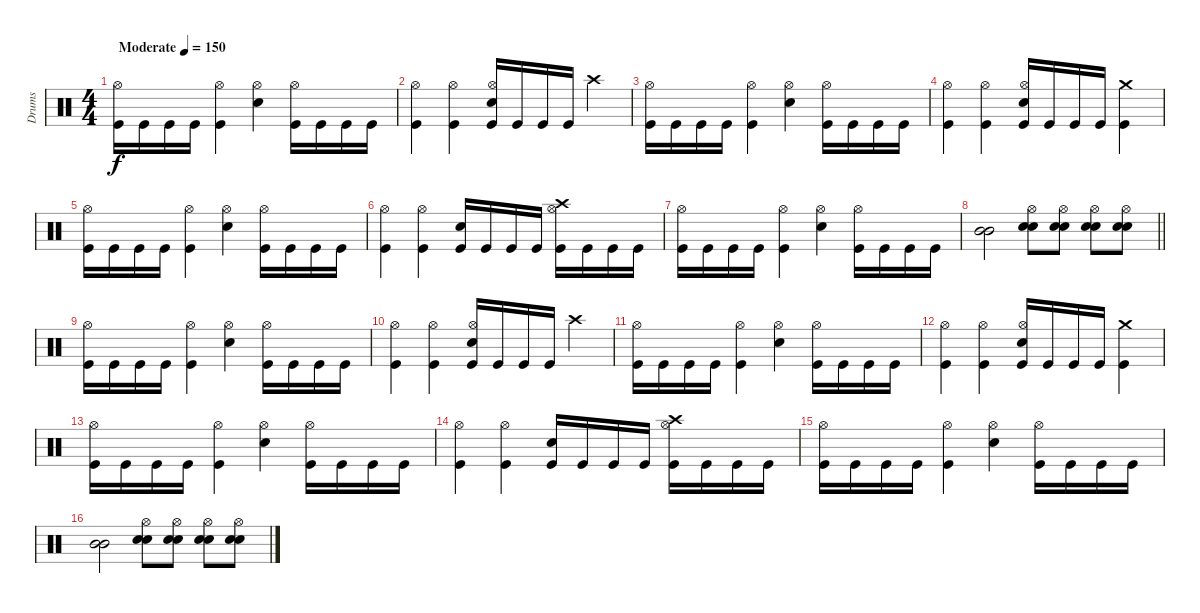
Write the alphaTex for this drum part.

\track ("Drums" "Drums") {instrument percussion}
\staff {score}
\articulation defaults
\ts (4 4)
\tempo (150 "Moderate")
\clef neutral
\ks c
("Kick (hit)" "Hi-Hat (open)").16{dy f} "Kick (hit)".16 "Kick (hit)".16 "Kick (hit)".16 ("Kick (hit)" "Hi-Hat (open)").4 ("Snare (hit) 2" "Hi-Hat (open)").4 ("Hi-Hat (open)" "Kick (hit)").16 "Kick (hit)".16 "Kick (hit)".16 "Kick (hit)".16 |
("Kick (hit)" "Hi-Hat (open)").4 ("Kick (hit)" "Hi-Hat (open)").4 ("Snare (hit) 2" "Kick (hit)" "Hi-Hat (open)").16 "Kick (hit)".16 "Kick (hit)".16 "Kick (hit)".16 "Crash high (hit)".4 |
("Kick (hit)" "Hi-Hat (open)").16 "Kick (hit)".16 "Kick (hit)".16 "Kick (hit)".16 ("Kick (hit)" "Hi-Hat (open)").4 ("Snare (hit) 2" "Hi-Hat (open)").4 ("Kick (hit)" "Hi-Hat (open)").16 "Kick (hit)".16 "Kick (hit)".16 "Kick (hit)".16 |
("Kick (hit)" "Hi-Hat (open)").4 ("Kick (hit)" "Hi-Hat (open)").4 ("Snare (hit) 2" "Kick (hit)" "Hi-Hat (open)").16 "Kick (hit)".16 "Kick (hit)".16 "Kick (hit)".16 ("Kick (hit)" "Crash medium (hit)").4 |
("Kick (hit)" "Hi-Hat (open)").16 "Kick (hit)".16 "Kick (hit)".16 "Kick (hit)".16 ("Kick (hit)" "Hi-Hat (open)").4 ("Snare (hit) 2" "Hi-Hat (open)").4 ("Kick (hit)" "Hi-Hat (open)").16 "Kick (hit)".16 "Kick (hit)".16 "Kick (hit)".16 |
("Kick (hit)" "Hi-Hat (open)").4 ("Kick (hit)" "Hi-Hat (open)").4 ("Snare (hit) 2" "Kick (hit)").16 "Kick (hit)".16 "Kick (hit)".16 "Kick (hit)".16 ("Crash high (hit)" "Kick (hit)" "Hi-Hat (open)").16 "Kick (hit)".16 "Kick (hit)".16 "Kick (hit)".16 |
("Kick (hit)" "Hi-Hat (open)").16 "Kick (hit)".16 "Kick (hit)".16 "Kick (hit)".16 ("Kick (hit)" "Hi-Hat (open)").4 ("Snare (hit) 2" "Hi-Hat (open)").4 ("Hi-Hat (open)" "Kick (hit)").16 "Kick (hit)".16 "Kick (hit)".16 "Kick (hit)".16 |
\barLineRight lightlight
("Mid Tom (hit)" "Mid Tom (hit)").2 ("Snare (hit) 2" "Snare (hit) 2" "Hi-Hat (open)").8 ("Snare (hit) 2" "Snare (hit) 2" "Hi-Hat (open)").8 ("Snare (hit) 2" "Snare (hit) 2" "Hi-Hat (open)").8 ("Snare (hit) 2" "Snare (hit) 2" "Hi-Hat (open)").8 |
("Kick (hit)" "Hi-Hat (open)").16 "Kick (hit)".16 "Kick (hit)".16 "Kick (hit)".16 ("Kick (hit)" "Hi-Hat (open)").4 ("Snare (hit) 2" "Hi-Hat (open)").4 ("Hi-Hat (open)" "Kick (hit)").16 "Kick (hit)".16 "Kick (hit)".16 "Kick (hit)".16 |
("Kick (hit)" "Hi-Hat (open)").4 ("Kick (hit)" "Hi-Hat (open)").4 ("Snare (hit) 2" "Kick (hit)" "Hi-Hat (open)").16 "Kick (hit)".16 "Kick (hit)".16 "Kick (hit)".16 "Crash high (hit)".4 |
("Kick (hit)" "Hi-Hat (open)").16 "Kick (hit)".16 "Kick (hit)".16 "Kick (hit)".16 ("Kick (hit)" "Hi-Hat (open)").4 ("Snare (hit) 2" "Hi-Hat (open)").4 ("Kick (hit)" "Hi-Hat (open)").16 "Kick (hit)".16 "Kick (hit)".16 "Kick (hit)".16 |
("Kick (hit)" "Hi-Hat (open)").4 ("Kick (hit)" "Hi-Hat (open)").4 ("Snare (hit) 2" "Kick (hit)" "Hi-Hat (open)").16 "Kick (hit)".16 "Kick (hit)".16 "Kick (hit)".16 ("Kick (hit)" "Crash medium (hit)").4 |
("Kick (hit)" "Hi-Hat (open)").16 "Kick (hit)".16 "Kick (hit)".16 "Kick (hit)".16 ("Kick (hit)" "Hi-Hat (open)").4 ("Snare (hit) 2" "Hi-Hat (open)").4 ("Kick (hit)" "Hi-Hat (open)").16 "Kick (hit)".16 "Kick (hit)".16 "Kick (hit)".16 |
("Kick (hit)" "Hi-Hat (open)").4 ("Kick (hit)" "Hi-Hat (open)").4 ("Snare (hit) 2" "Kick (hit)").16 "Kick (hit)".16 "Kick (hit)".16 "Kick (hit)".16 ("Crash high (hit)" "Kick (hit)" "Hi-Hat (open)").16 "Kick (hit)".16 "Kick (hit)".16 "Kick (hit)".16 |
("Kick (hit)" "Hi-Hat (open)").16 "Kick (hit)".16 "Kick (hit)".16 "Kick (hit)".16 ("Kick (hit)" "Hi-Hat (open)").4 ("Snare (hit) 2" "Hi-Hat (open)").4 ("Hi-Hat (open)" "Kick (hit)").16 "Kick (hit)".16 "Kick (hit)".16 "Kick (hit)".16 |
("Mid Tom (hit)" "Mid Tom (hit)").2 ("Snare (hit) 2" "Snare (hit) 2" "Hi-Hat (open)").8 ("Snare (hit) 2" "Snare (hit) 2" "Hi-Hat (open)").8 ("Snare (hit) 2" "Snare (hit) 2" "Hi-Hat (open)").8 ("Snare (hit) 2" "Snare (hit) 2" "Hi-Hat (open)").8
